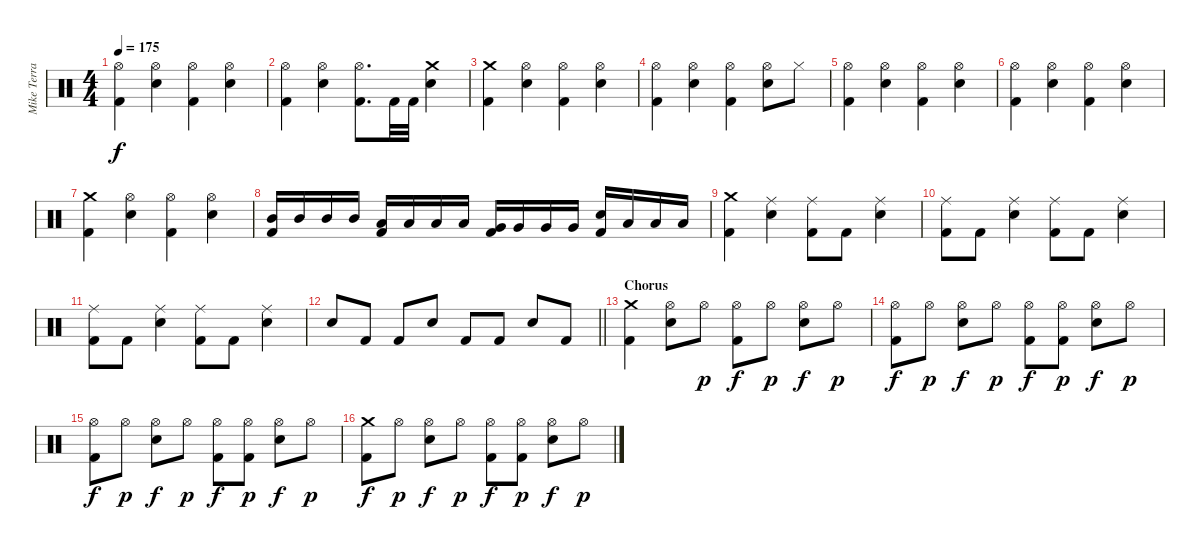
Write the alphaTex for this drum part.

\track ("Mike Terrana" "Mike Terra") {instrument percussion}
\staff {score}
\articulation defaults
\ts (4 4)
\tempo 175
\clef neutral
\ks c
("Hi-Hat (open)" "Kick (hit) 2").4{dy f} ("Hi-Hat (open)" "Snare (hit) 2").4 ("Hi-Hat (open)" "Kick (hit) 2").4 ("Hi-Hat (open)" "Snare (hit) 2").4 |
("Hi-Hat (open)" "Kick (hit) 2").4 ("Hi-Hat (open)" "Snare (hit) 2").4 ("Hi-Hat (open)" "Kick (hit) 2").8{d} "Kick (hit) 2".32 "Kick (hit) 2".32 ("Crash medium (hit)" "Snare (hit) 2").4 |
("Crash medium (hit)" "Kick (hit) 2").4 ("Hi-Hat (open)" "Snare (hit) 2").4 ("Hi-Hat (open)" "Kick (hit) 2").4 ("Hi-Hat (open)" "Snare (hit) 2").4 |
("Hi-Hat (open)" "Kick (hit) 2").4 ("Hi-Hat (open)" "Snare (hit) 2").4 ("Hi-Hat (open)" "Kick (hit) 2").4 ("Hi-Hat (open)" "Snare (hit) 2").8 "Hi-Hat (closed)".8 |
("Hi-Hat (open)" "Kick (hit) 2").4 ("Hi-Hat (open)" "Snare (hit) 2").4 ("Hi-Hat (open)" "Kick (hit) 2").4 ("Hi-Hat (open)" "Snare (hit) 2").4 |
("Hi-Hat (open)" "Kick (hit) 2").4 ("Hi-Hat (open)" "Snare (hit) 2").4 ("Hi-Hat (open)" "Kick (hit) 2").4 ("Hi-Hat (open)" "Snare (hit) 2").4 |
("Crash medium (hit)" "Kick (hit) 2").4 ("Hi-Hat (open)" "Snare (hit) 2").4 ("Hi-Hat (open)" "Kick (hit) 2").4 ("Hi-Hat (open)" "Snare (hit) 2").4 |
("Mid Tom (hit)" "Kick (hit) 2").16 "Mid Tom (hit)".16 "Mid Tom (hit)".16 "Mid Tom (hit)".16 ("Low Tom (hit)" "Kick (hit) 2").16 "Low Tom (hit)".16 "Low Tom (hit)".16 "Low Tom (hit)".16 ("Very Low Tom (hit)" "Kick (hit) 2").16 "Very Low Tom (hit)".16 "Very Low Tom (hit)".16 "Very Low Tom (hit)".16 ("Snare (hit) 2" "Kick (hit) 2").16 "Low Floor Tom (hit)".16 "Low Floor Tom (hit)".16 "Low Floor Tom (hit)".16 |
("Crash medium (hit)" "Kick (hit) 2").4 ("Ride (middle)" "Snare (hit) 2").4 ("Ride (middle)" "Kick (hit) 2").8 "Kick (hit) 2".8 ("Ride (middle)" "Snare (hit) 2").4 |
("Ride (middle)" "Kick (hit) 2").8 "Kick (hit) 2".8 ("Ride (middle)" "Snare (hit) 2").4 ("Ride (middle)" "Kick (hit) 2").8 "Kick (hit) 2".8 ("Ride (middle)" "Snare (hit) 2").4 |
("Ride (middle)" "Kick (hit) 2").8 "Kick (hit) 2".8 ("Ride (middle)" "Snare (hit) 2").4 ("Ride (middle)" "Kick (hit) 2").8 "Kick (hit) 2".8 ("Ride (middle)" "Snare (hit) 2").4 |
\barLineRight lightlight "Snare (hit) 2".8 "Kick (hit) 2".8 "Kick (hit) 2".8 "Snare (hit) 2".8 "Kick (hit) 2".8 "Kick (hit) 2".8 "Snare (hit) 2".8 "Kick (hit) 2".8
|
\section ("" "Chorus")
("Crash medium (hit)" "Kick (hit) 2").4 ("Hi-Hat (open)" "Snare (hit) 2").8 "Hi-Hat (open)".8{dy p} ("Hi-Hat (open)" "Kick (hit) 2").8{dy f} "Hi-Hat (open)".8{dy p} ("Hi-Hat (open)" "Snare (hit) 2").8{dy f} "Hi-Hat (open)".8{dy p} |
("Hi-Hat (open)" "Kick (hit) 2").8{dy f} "Hi-Hat (open)".8{dy p} ("Hi-Hat (open)" "Snare (hit) 2").8{dy f} "Hi-Hat (open)".8{dy p} ("Hi-Hat (open)" "Kick (hit) 2").8{dy f} ("Hi-Hat (open)" "Kick (hit) 2").8{dy p} ("Hi-Hat (open)" "Snare (hit) 2").8{dy f} "Hi-Hat (open)".8{dy p} |
("Hi-Hat (open)" "Kick (hit) 2").8{dy f} "Hi-Hat (open)".8{dy p} ("Hi-Hat (open)" "Snare (hit) 2").8{dy f} "Hi-Hat (open)".8{dy p} ("Hi-Hat (open)" "Kick (hit) 2").8{dy f} ("Hi-Hat (open)" "Kick (hit) 2").8{dy p} ("Hi-Hat (open)" "Snare (hit) 2").8{dy f} "Hi-Hat (open)".8{dy p} |
("Crash medium (hit)" "Kick (hit) 2").8{dy f} "Hi-Hat (open)".8{dy p} ("Hi-Hat (open)" "Snare (hit) 2").8{dy f} "Hi-Hat (open)".8{dy p} ("Hi-Hat (open)" "Kick (hit) 2").8{dy f} ("Hi-Hat (open)" "Kick (hit) 2").8{dy p} ("Hi-Hat (open)" "Snare (hit) 2").8{dy f} "Hi-Hat (open)".8{dy p}
